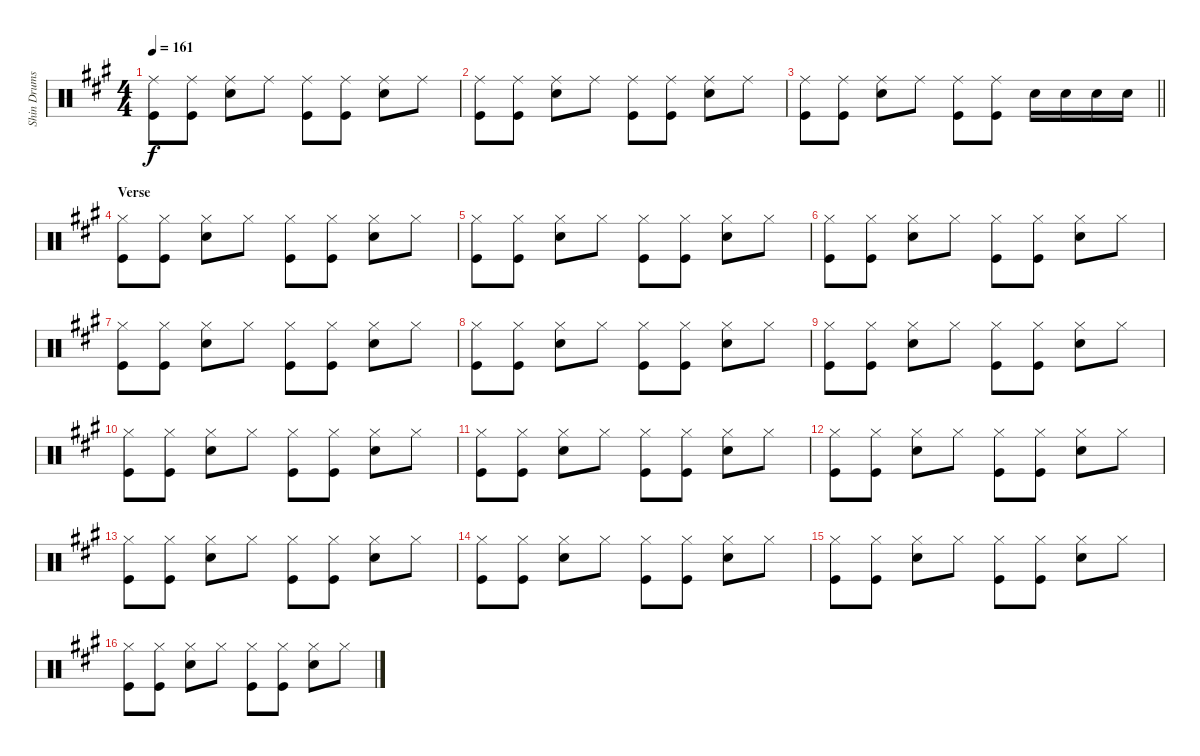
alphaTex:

\track ("Shin Drums" "Shin Drums") {instrument percussion}
\staff {score}
\articulation defaults
\ts (4 4)
\tempo 161
\clef neutral
\ks a
("Ride (middle)" "Kick (hit)").8{dy f} ("Ride (middle)" "Kick (hit)").8 ("Ride (middle)" "Snare (hit) 2").8 "Ride (middle)".8 ("Ride (middle)" "Kick (hit)").8 ("Ride (middle)" "Kick (hit)").8 ("Ride (middle)" "Snare (hit) 2").8 "Ride (middle)".8 |
("Ride (middle)" "Kick (hit)").8 ("Ride (middle)" "Kick (hit)").8 ("Ride (middle)" "Snare (hit) 2").8 "Ride (middle)".8 ("Ride (middle)" "Kick (hit)").8 ("Ride (middle)" "Kick (hit)").8 ("Ride (middle)" "Snare (hit) 2").8 "Ride (middle)".8 |
\barLineRight lightlight
("Ride (middle)" "Kick (hit)").8 ("Ride (middle)" "Kick (hit)").8 ("Ride (middle)" "Snare (hit) 2").8 "Ride (middle)".8 ("Ride (middle)" "Kick (hit)").8 ("Ride (middle)" "Kick (hit)").8 "Snare (hit) 2".16 "Snare (hit) 2".16 "Snare (hit) 2".16 "Snare (hit) 2".16 |
\section ("" "Verse")
("Hi-Hat (closed)" "Kick (hit)").8 ("Hi-Hat (closed)" "Kick (hit)").8 ("Hi-Hat (closed)" "Snare (hit) 2").8 "Hi-Hat (closed)".8 ("Hi-Hat (closed)" "Kick (hit)").8 ("Hi-Hat (closed)" "Kick (hit)").8 ("Hi-Hat (closed)" "Snare (hit) 2").8 "Hi-Hat (closed)".8 |
("Hi-Hat (closed)" "Kick (hit)").8 ("Hi-Hat (closed)" "Kick (hit)").8 ("Hi-Hat (closed)" "Snare (hit) 2").8 "Hi-Hat (closed)".8 ("Hi-Hat (closed)" "Kick (hit)").8 ("Hi-Hat (closed)" "Kick (hit)").8 ("Hi-Hat (closed)" "Snare (hit) 2").8 "Hi-Hat (closed)".8 |
("Hi-Hat (closed)" "Kick (hit)").8 ("Hi-Hat (closed)" "Kick (hit)").8 ("Hi-Hat (closed)" "Snare (hit) 2").8 "Hi-Hat (closed)".8 ("Hi-Hat (closed)" "Kick (hit)").8 ("Hi-Hat (closed)" "Kick (hit)").8 ("Hi-Hat (closed)" "Snare (hit) 2").8 "Hi-Hat (closed)".8 |
("Hi-Hat (closed)" "Kick (hit)").8 ("Hi-Hat (closed)" "Kick (hit)").8 ("Hi-Hat (closed)" "Snare (hit) 2").8 "Hi-Hat (closed)".8 ("Hi-Hat (closed)" "Kick (hit)").8 ("Hi-Hat (closed)" "Kick (hit)").8 ("Hi-Hat (closed)" "Snare (hit) 2").8 "Hi-Hat (closed)".8 |
("Hi-Hat (closed)" "Kick (hit)").8 ("Hi-Hat (closed)" "Kick (hit)").8 ("Hi-Hat (closed)" "Snare (hit) 2").8 "Hi-Hat (closed)".8 ("Hi-Hat (closed)" "Kick (hit)").8 ("Hi-Hat (closed)" "Kick (hit)").8 ("Hi-Hat (closed)" "Snare (hit) 2").8 "Hi-Hat (closed)".8 |
("Hi-Hat (closed)" "Kick (hit)").8 ("Hi-Hat (closed)" "Kick (hit)").8 ("Hi-Hat (closed)" "Snare (hit) 2").8 "Hi-Hat (closed)".8 ("Hi-Hat (closed)" "Kick (hit)").8 ("Hi-Hat (closed)" "Kick (hit)").8 ("Hi-Hat (closed)" "Snare (hit) 2").8 "Hi-Hat (closed)".8 |
("Hi-Hat (closed)" "Kick (hit)").8 ("Hi-Hat (closed)" "Kick (hit)").8 ("Hi-Hat (closed)" "Snare (hit) 2").8 "Hi-Hat (closed)".8 ("Hi-Hat (closed)" "Kick (hit)").8 ("Hi-Hat (closed)" "Kick (hit)").8 ("Hi-Hat (closed)" "Snare (hit) 2").8 "Hi-Hat (closed)".8 |
("Hi-Hat (closed)" "Kick (hit)").8 ("Hi-Hat (closed)" "Kick (hit)").8 ("Hi-Hat (closed)" "Snare (hit) 2").8 "Hi-Hat (closed)".8 ("Hi-Hat (closed)" "Kick (hit)").8 ("Hi-Hat (closed)" "Kick (hit)").8 ("Hi-Hat (closed)" "Snare (hit) 2").8 "Hi-Hat (closed)".8 |
("Hi-Hat (closed)" "Kick (hit)").8 ("Hi-Hat (closed)" "Kick (hit)").8 ("Hi-Hat (closed)" "Snare (hit) 2").8 "Hi-Hat (closed)".8 ("Hi-Hat (closed)" "Kick (hit)").8 ("Hi-Hat (closed)" "Kick (hit)").8 ("Hi-Hat (closed)" "Snare (hit) 2").8 "Hi-Hat (closed)".8 |
("Hi-Hat (closed)" "Kick (hit)").8 ("Hi-Hat (closed)" "Kick (hit)").8 ("Hi-Hat (closed)" "Snare (hit) 2").8 "Hi-Hat (closed)".8 ("Hi-Hat (closed)" "Kick (hit)").8 ("Hi-Hat (closed)" "Kick (hit)").8 ("Hi-Hat (closed)" "Snare (hit) 2").8 "Hi-Hat (closed)".8 |
("Hi-Hat (closed)" "Kick (hit)").8 ("Hi-Hat (closed)" "Kick (hit)").8 ("Hi-Hat (closed)" "Snare (hit) 2").8 "Hi-Hat (closed)".8 ("Hi-Hat (closed)" "Kick (hit)").8 ("Hi-Hat (closed)" "Kick (hit)").8 ("Hi-Hat (closed)" "Snare (hit) 2").8 "Hi-Hat (closed)".8 |
("Hi-Hat (closed)" "Kick (hit)").8 ("Hi-Hat (closed)" "Kick (hit)").8 ("Hi-Hat (closed)" "Snare (hit) 2").8 "Hi-Hat (closed)".8 ("Hi-Hat (closed)" "Kick (hit)").8 ("Hi-Hat (closed)" "Kick (hit)").8 ("Hi-Hat (closed)" "Snare (hit) 2").8 "Hi-Hat (closed)".8 |
("Hi-Hat (closed)" "Kick (hit)").8 ("Hi-Hat (closed)" "Kick (hit)").8 ("Hi-Hat (closed)" "Snare (hit) 2").8 "Hi-Hat (closed)".8 ("Hi-Hat (closed)" "Kick (hit)").8 ("Hi-Hat (closed)" "Kick (hit)").8 ("Hi-Hat (closed)" "Snare (hit) 2").8 "Hi-Hat (closed)".8
